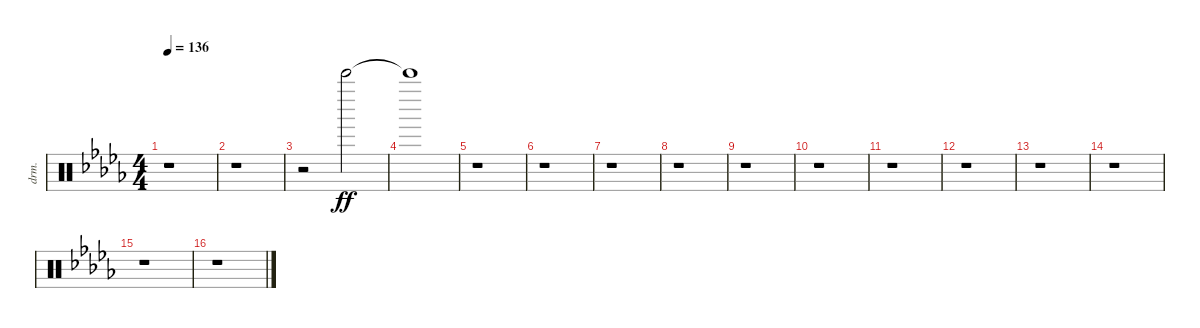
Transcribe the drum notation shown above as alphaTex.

\bracketExtendMode nobrackets
\track ("Wind Chimes" "drm.") {instrument percussion}
\staff {score}
\articulation defaults
\ts (4 4)
\tempo 136
\clef neutral
\ks db
r.1{dy ff beam Down} |
r.1{beam Down} |
r.2{beam Down} "Bell Tree (hit)"{acc forcenatural}.2{beam Down} |
"Bell Tree (hit)"{t acc forcenatural}.1{beam Down} |
r.1{beam Down} |
r.1{beam Down} |
r.1{beam Down} |
r.1{beam Down} |
r.1{beam Down} |
r.1{beam Down} |
r.1{beam Down} |
r.1{beam Down} |
r.1{beam Down} |
r.1{beam Down} |
r.1{beam Down} |
r.1{beam Down}
